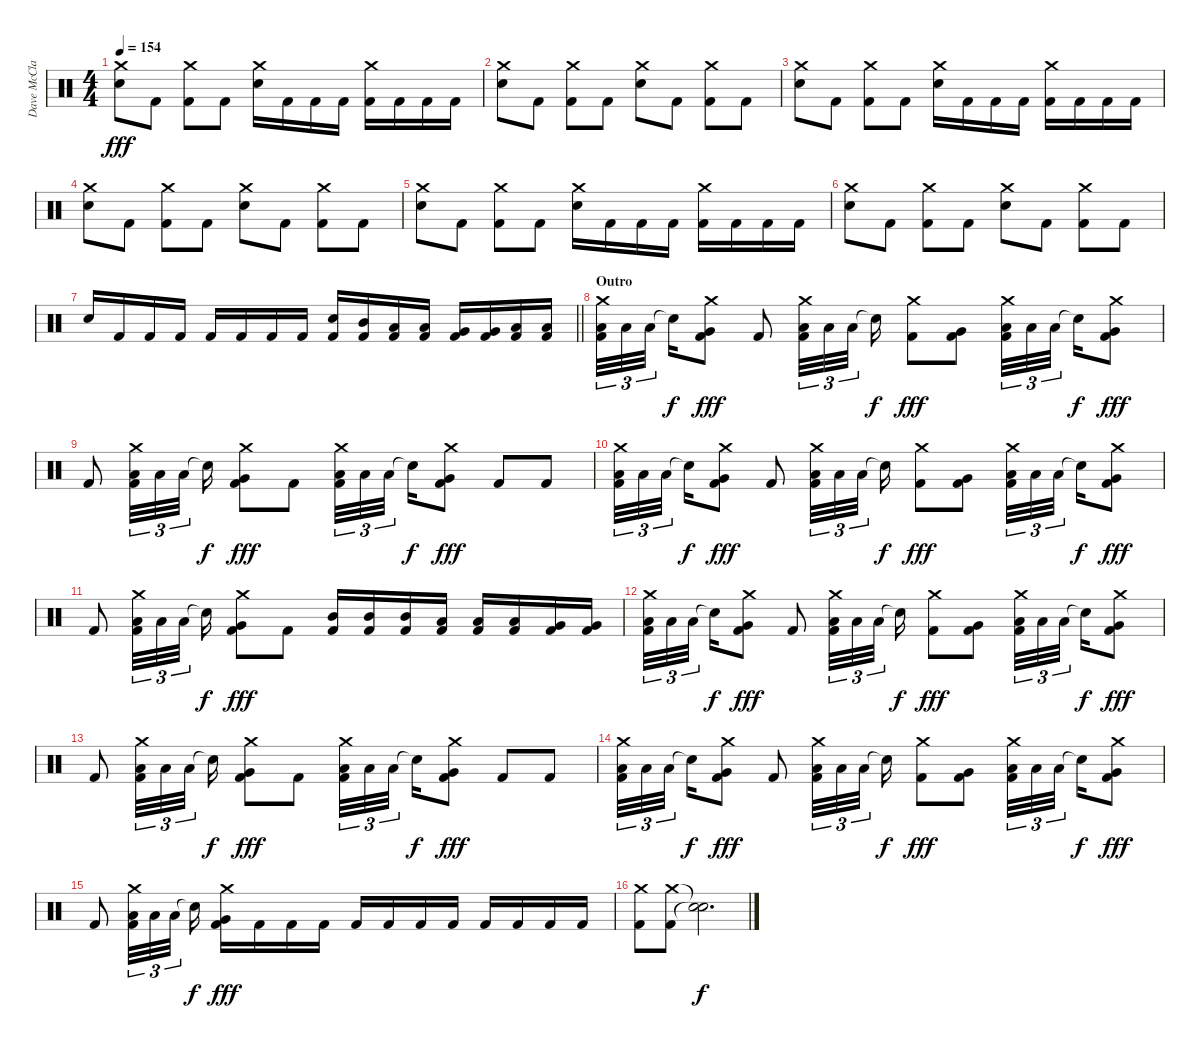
\track ("Dave McClain" "Dave McCla") {instrument percussion}
\staff {score}
\articulation defaults
\ts (4 4)
\tempo 154
\clef neutral
\ks c
("Crash medium (hit)" "Electric Snare (hit)").8{dy fff} "Kick (hit) 2".8 ("Crash medium (hit)" "Kick (hit) 2").8 "Kick (hit) 2".8 ("Crash medium (hit)" "Electric Snare (hit)").16 "Kick (hit) 2".16 "Kick (hit) 2".16 "Kick (hit) 2".16 ("Crash medium (hit)" "Kick (hit) 2").16 "Kick (hit) 2".16 "Kick (hit) 2".16 "Kick (hit) 2".16 |
("Crash medium (hit)" "Electric Snare (hit)").8 "Kick (hit) 2".8 ("Crash medium (hit)" "Kick (hit) 2").8 "Kick (hit) 2".8 ("Crash medium (hit)" "Electric Snare (hit)").8 "Kick (hit) 2".8 ("Crash medium (hit)" "Kick (hit) 2").8 "Kick (hit) 2".8 |
("Crash medium (hit)" "Electric Snare (hit)").8 "Kick (hit) 2".8 ("Crash medium (hit)" "Kick (hit) 2").8 "Kick (hit) 2".8 ("Crash medium (hit)" "Electric Snare (hit)").16 "Kick (hit) 2".16 "Kick (hit) 2".16 "Kick (hit) 2".16 ("Crash medium (hit)" "Kick (hit) 2").16 "Kick (hit) 2".16 "Kick (hit) 2".16 "Kick (hit) 2".16 |
("Crash medium (hit)" "Electric Snare (hit)").8 "Kick (hit) 2".8 ("Crash medium (hit)" "Kick (hit) 2").8 "Kick (hit) 2".8 ("Crash medium (hit)" "Electric Snare (hit)").8 "Kick (hit) 2".8 ("Crash medium (hit)" "Kick (hit) 2").8 "Kick (hit) 2".8 |
("Crash medium (hit)" "Electric Snare (hit)").8 "Kick (hit) 2".8 ("Crash medium (hit)" "Kick (hit) 2").8 "Kick (hit) 2".8 ("Crash medium (hit)" "Electric Snare (hit)").16 "Kick (hit) 2".16 "Kick (hit) 2".16 "Kick (hit) 2".16 ("Crash medium (hit)" "Kick (hit) 2").16 "Kick (hit) 2".16 "Kick (hit) 2".16 "Kick (hit) 2".16 |
("Crash medium (hit)" "Electric Snare (hit)").8 "Kick (hit) 2".8 ("Crash medium (hit)" "Kick (hit) 2").8 "Kick (hit) 2".8 ("Crash medium (hit)" "Electric Snare (hit)").8 "Kick (hit) 2".8 ("Crash medium (hit)" "Kick (hit) 2").8 "Kick (hit) 2".8 |
\barLineRight lightlight "Electric Snare (hit)".16 "Kick (hit) 2".16 "Kick (hit) 2".16 "Kick (hit) 2".16 "Kick (hit) 2".16 "Kick (hit) 2".16 "Kick (hit) 2".16 "Kick (hit) 2".16
("Electric Snare (hit)" "Kick (hit) 2").16 ("Mid Tom (hit)" "Kick (hit) 2").16 ("Low Tom (hit)" "Kick (hit) 2").16 ("Low Tom (hit)" "Kick (hit) 2").16 ("Very Low Tom (hit)" "Kick (hit) 2").16 ("Very Low Tom (hit)" "Kick (hit) 2").16 ("Low Floor Tom (hit)" "Kick (hit) 2").16 ("Low Floor Tom (hit)" "Kick (hit) 2").16 |
\section ("" "Outro")
("Crash medium (hit)" "Low Tom (hit)" "Kick (hit) 2").32{tu (3 2)} "Low Tom (hit)".32{tu (3 2)} "Low Tom (hit)".32{tu (3 2) beam splitsecondary} "Snare (hit)"{t}.16{dy f} ("Crash medium (hit)" "Very Low Tom (hit)" "Kick (hit) 2").8{dy fff} "Kick (hit) 2".8 ("Crash medium (hit)" "Low Tom (hit)" "Kick (hit) 2").32{tu (3 2)} "Low Tom (hit)".32{tu (3 2)} "Low Tom (hit)".32{tu (3 2) beam splitsecondary} "Snare (hit)"{t}.16{dy f} ("Crash medium (hit)" "Kick (hit) 2").8{dy fff} ("Very Low Tom (hit)" "Kick (hit) 2").8 ("Crash medium (hit)" "Low Tom (hit)" "Kick (hit) 2").32{tu (3 2)} "Low Tom (hit)".32{tu (3 2)} "Low Tom (hit)".32{tu (3 2) beam splitsecondary} "Snare (hit)"{t}.16{dy f} ("Crash medium (hit)" "Very Low Tom (hit)" "Kick (hit) 2").8{dy fff} |
"Kick (hit) 2".8 ("Crash medium (hit)" "Low Tom (hit)" "Kick (hit) 2").32{tu (3 2)} "Low Tom (hit)".32{tu (3 2)} "Low Tom (hit)".32{tu (3 2) beam splitsecondary} "Snare (hit)"{t}.16{dy f} ("Crash medium (hit)" "Very Low Tom (hit)" "Kick (hit) 2").8{dy fff} "Kick (hit) 2".8 ("Crash medium (hit)" "Low Tom (hit)" "Kick (hit) 2").32{tu (3 2)} "Low Tom (hit)".32{tu (3 2)} "Low Tom (hit)".32{tu (3 2) beam splitsecondary} "Snare (hit)"{t}.16{dy f} ("Crash medium (hit)" "Very Low Tom (hit)" "Kick (hit) 2").8{dy fff} "Kick (hit) 2".8 "Kick (hit) 2".8 |
("Crash medium (hit)" "Low Tom (hit)" "Kick (hit) 2").32{tu (3 2)} "Low Tom (hit)".32{tu (3 2)} "Low Tom (hit)".32{tu (3 2) beam splitsecondary} "Snare (hit)"{t}.16{dy f} ("Crash medium (hit)" "Very Low Tom (hit)" "Kick (hit) 2").8{dy fff} "Kick (hit) 2".8 ("Crash medium (hit)" "Low Tom (hit)" "Kick (hit) 2").32{tu (3 2)} "Low Tom (hit)".32{tu (3 2)} "Low Tom (hit)".32{tu (3 2) beam splitsecondary} "Snare (hit)"{t}.16{dy f} ("Crash medium (hit)" "Kick (hit) 2").8{dy fff} ("Very Low Tom (hit)" "Kick (hit) 2").8 ("Crash medium (hit)" "Low Tom (hit)" "Kick (hit) 2").32{tu (3 2)} "Low Tom (hit)".32{tu (3 2)} "Low Tom (hit)".32{tu (3 2) beam splitsecondary} "Snare (hit)"{t}.16{dy f} ("Crash medium (hit)" "Very Low Tom (hit)" "Kick (hit) 2").8{dy fff} |
"Kick (hit) 2".8 ("Crash medium (hit)" "Low Tom (hit)" "Kick (hit) 2").32{tu (3 2)} "Low Tom (hit)".32{tu (3 2)} "Low Tom (hit)".32{tu (3 2) beam splitsecondary} "Snare (hit)"{t}.16{dy f} ("Crash medium (hit)" "Very Low Tom (hit)" "Kick (hit) 2").8{dy fff} "Kick (hit) 2".8 ("Mid Tom (hit)" "Kick (hit) 2").16 ("Mid Tom (hit)" "Kick (hit) 2").16 ("Mid Tom (hit)" "Kick (hit) 2").16 ("Low Tom (hit)" "Kick (hit) 2").16 ("Low Tom (hit)" "Kick (hit) 2").16 ("Low Tom (hit)" "Kick (hit) 2").16 ("Very Low Tom (hit)" "Kick (hit) 2").16 ("Very Low Tom (hit)" "Kick (hit) 2").16 |
("Crash medium (hit)" "Low Tom (hit)" "Kick (hit) 2").32{tu (3 2)} "Low Tom (hit)".32{tu (3 2)} "Low Tom (hit)".32{tu (3 2) beam splitsecondary} "Snare (hit)"{t}.16{dy f} ("Crash medium (hit)" "Very Low Tom (hit)" "Kick (hit) 2").8{dy fff} "Kick (hit) 2".8 ("Crash medium (hit)" "Low Tom (hit)" "Kick (hit) 2").32{tu (3 2)} "Low Tom (hit)".32{tu (3 2)} "Low Tom (hit)".32{tu (3 2) beam splitsecondary} "Snare (hit)"{t}.16{dy f} ("Crash medium (hit)" "Kick (hit) 2").8{dy fff} ("Very Low Tom (hit)" "Kick (hit) 2").8 ("Crash medium (hit)" "Low Tom (hit)" "Kick (hit) 2").32{tu (3 2)} "Low Tom (hit)".32{tu (3 2)} "Low Tom (hit)".32{tu (3 2) beam splitsecondary} "Snare (hit)"{t}.16{dy f} ("Crash medium (hit)" "Very Low Tom (hit)" "Kick (hit) 2").8{dy fff} |
"Kick (hit) 2".8 ("Crash medium (hit)" "Low Tom (hit)" "Kick (hit) 2").32{tu (3 2)} "Low Tom (hit)".32{tu (3 2)} "Low Tom (hit)".32{tu (3 2) beam splitsecondary} "Snare (hit)"{t}.16{dy f} ("Crash medium (hit)" "Very Low Tom (hit)" "Kick (hit) 2").8{dy fff} "Kick (hit) 2".8 ("Crash medium (hit)" "Low Tom (hit)" "Kick (hit) 2").32{tu (3 2)} "Low Tom (hit)".32{tu (3 2)} "Low Tom (hit)".32{tu (3 2) beam splitsecondary} "Snare (hit)"{t}.16{dy f} ("Crash medium (hit)" "Very Low Tom (hit)" "Kick (hit) 2").8{dy fff} "Kick (hit) 2".8 "Kick (hit) 2".8 |
("Crash medium (hit)" "Low Tom (hit)" "Kick (hit) 2").32{tu (3 2)} "Low Tom (hit)".32{tu (3 2)} "Low Tom (hit)".32{tu (3 2) beam splitsecondary} "Snare (hit)"{t}.16{dy f} ("Crash medium (hit)" "Very Low Tom (hit)" "Kick (hit) 2").8{dy fff} "Kick (hit) 2".8 ("Crash medium (hit)" "Low Tom (hit)" "Kick (hit) 2").32{tu (3 2)} "Low Tom (hit)".32{tu (3 2)} "Low Tom (hit)".32{tu (3 2) beam splitsecondary} "Snare (hit)"{t}.16{dy f} ("Crash medium (hit)" "Kick (hit) 2").8{dy fff} ("Very Low Tom (hit)" "Kick (hit) 2").8 ("Crash medium (hit)" "Low Tom (hit)" "Kick (hit) 2").32{tu (3 2)} "Low Tom (hit)".32{tu (3 2)} "Low Tom (hit)".32{tu (3 2) beam splitsecondary} "Snare (hit)"{t}.16{dy f} ("Crash medium (hit)" "Very Low Tom (hit)" "Kick (hit) 2").8{dy fff} |
"Kick (hit) 2".8 ("Crash medium (hit)" "Low Tom (hit)" "Kick (hit) 2").32{tu (3 2)} "Low Tom (hit)".32{tu (3 2)} "Low Tom (hit)".32{tu (3 2) beam splitsecondary} "Snare (hit)"{t}.16{dy f} ("Crash medium (hit)" "Very Low Tom (hit)" "Kick (hit) 2").16{dy fff} "Kick (hit) 2".16 "Kick (hit) 2".16 "Kick (hit) 2".16 "Kick (hit) 2".16 "Kick (hit) 2".16 "Kick (hit) 2".16 "Kick (hit) 2".16 "Kick (hit) 2".16 "Kick (hit) 2".16 "Kick (hit) 2".16 "Kick (hit) 2".16 |
("Crash medium (hit)" "Kick (hit) 2").8 ("Crash medium (hit)" "Kick (hit) 2").8 ("Snare (hit)"{t} "Snare (hit)"{t}).2{d dy f}
